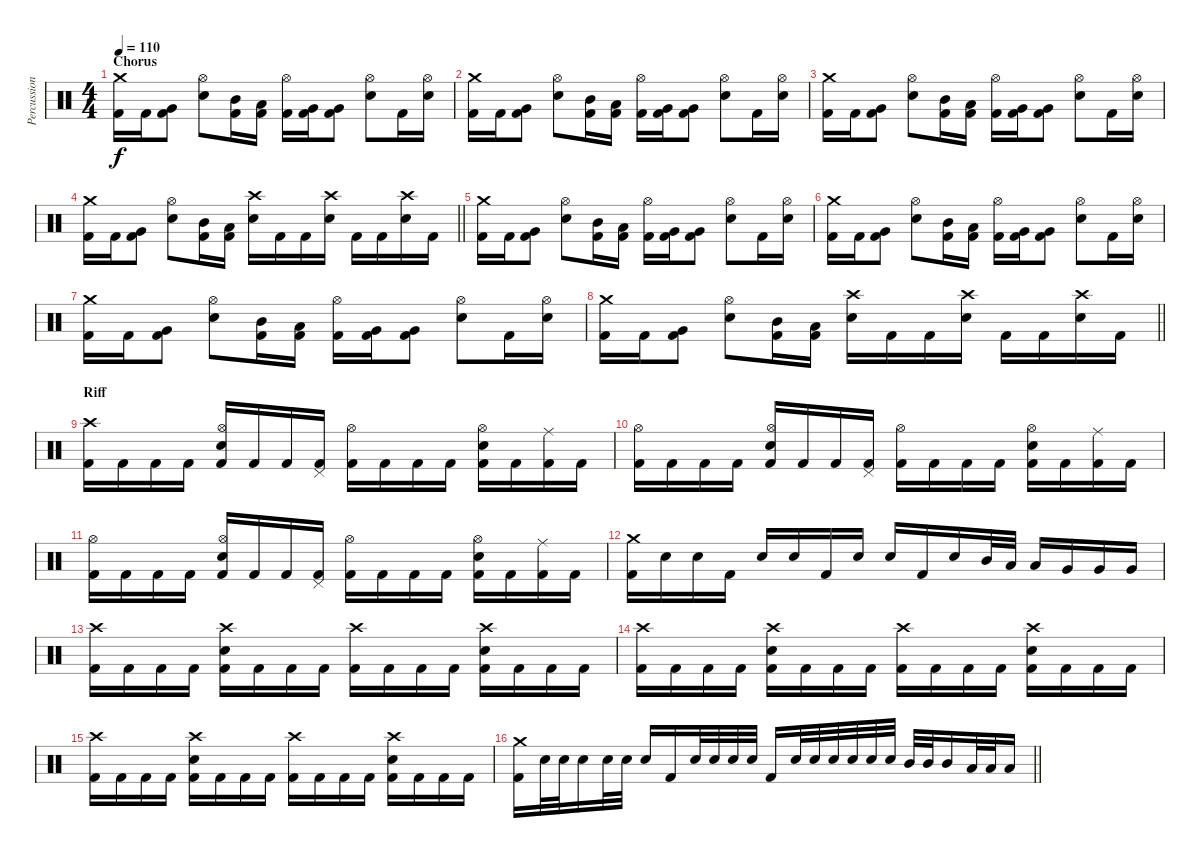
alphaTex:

\track ("Percussion" "Percussion") {instrument percussion}
\staff {score}
\articulation defaults
\ts (4 4)
\section ("" "Chorus")
\tempo 110
\clef neutral
\ks c
("Kick (hit) 2" "Crash medium (hit)").16{dy f} "Kick (hit) 2".16 ("Very Low Tom (hit)" "Kick (hit) 2").8 ("Hi-Hat (open)" "Snare (hit) 2").8 ("Mid Tom (hit)" "Kick (hit) 2").16 ("Low Tom (hit)" "Kick (hit) 2").16 ("Hi-Hat (open)" "Kick (hit) 2").16 ("Very Low Tom (hit)" "Kick (hit) 2").16 ("Very Low Tom (hit)" "Kick (hit) 2").8 ("Hi-Hat (open)" "Snare (hit) 2").8 "Kick (hit) 2".16 ("Hi-Hat (open)" "Snare (hit) 2").16 |
("Kick (hit) 2" "Crash medium (hit)").16 "Kick (hit) 2".16 ("Very Low Tom (hit)" "Kick (hit) 2").8 ("Hi-Hat (open)" "Snare (hit) 2").8 ("Mid Tom (hit)" "Kick (hit) 2").16 ("Low Tom (hit)" "Kick (hit) 2").16 ("Hi-Hat (open)" "Kick (hit) 2").16 ("Very Low Tom (hit)" "Kick (hit) 2").16 ("Very Low Tom (hit)" "Kick (hit) 2").8 ("Hi-Hat (open)" "Snare (hit) 2").8 "Kick (hit) 2".16 ("Hi-Hat (open)" "Snare (hit) 2").16 |
("Kick (hit) 2" "Crash medium (hit)").16 "Kick (hit) 2".16 ("Very Low Tom (hit)" "Kick (hit) 2").8 ("Hi-Hat (open)" "Snare (hit) 2").8 ("Mid Tom (hit)" "Kick (hit) 2").16 ("Low Tom (hit)" "Kick (hit) 2").16 ("Hi-Hat (open)" "Kick (hit) 2").16 ("Very Low Tom (hit)" "Kick (hit) 2").16 ("Very Low Tom (hit)" "Kick (hit) 2").8 ("Hi-Hat (open)" "Snare (hit) 2").8 "Kick (hit) 2".16 ("Hi-Hat (open)" "Snare (hit) 2").16 |
\barLineRight lightlight
("Kick (hit) 2" "Crash medium (hit)").16 "Kick (hit) 2".16 ("Very Low Tom (hit)" "Kick (hit) 2").8 ("Hi-Hat (open)" "Snare (hit) 2").8 ("Mid Tom (hit)" "Kick (hit) 2").16 ("Low Tom (hit)" "Kick (hit) 2").16 ("Snare (hit) 2" "Crash high (hit)").16 "Kick (hit) 2".16 "Kick (hit) 2".16 ("Snare (hit) 2" "Crash high (hit)").16 "Kick (hit) 2".16 "Kick (hit) 2".16 ("Snare (hit) 2" "Crash high (hit)").16 "Kick (hit) 2".16 |
("Kick (hit) 2" "Crash medium (hit)").16 "Kick (hit) 2".16 ("Very Low Tom (hit)" "Kick (hit) 2").8 ("Hi-Hat (open)" "Snare (hit) 2").8 ("Mid Tom (hit)" "Kick (hit) 2").16 ("Low Tom (hit)" "Kick (hit) 2").16 ("Hi-Hat (open)" "Kick (hit) 2").16 ("Very Low Tom (hit)" "Kick (hit) 2").16 ("Very Low Tom (hit)" "Kick (hit) 2").8 ("Hi-Hat (open)" "Snare (hit) 2").8 "Kick (hit) 2".16 ("Hi-Hat (open)" "Snare (hit) 2").16 |
("Kick (hit) 2" "Crash medium (hit)").16 "Kick (hit) 2".16 ("Very Low Tom (hit)" "Kick (hit) 2").8 ("Hi-Hat (open)" "Snare (hit) 2").8 ("Mid Tom (hit)" "Kick (hit) 2").16 ("Low Tom (hit)" "Kick (hit) 2").16 ("Hi-Hat (open)" "Kick (hit) 2").16 ("Very Low Tom (hit)" "Kick (hit) 2").16 ("Very Low Tom (hit)" "Kick (hit) 2").8 ("Hi-Hat (open)" "Snare (hit) 2").8 "Kick (hit) 2".16 ("Hi-Hat (open)" "Snare (hit) 2").16 |
("Kick (hit) 2" "Crash medium (hit)").16 "Kick (hit) 2".16 ("Very Low Tom (hit)" "Kick (hit) 2").8 ("Hi-Hat (open)" "Snare (hit) 2").8 ("Mid Tom (hit)" "Kick (hit) 2").16 ("Low Tom (hit)" "Kick (hit) 2").16 ("Hi-Hat (open)" "Kick (hit) 2").16 ("Very Low Tom (hit)" "Kick (hit) 2").16 ("Very Low Tom (hit)" "Kick (hit) 2").8 ("Hi-Hat (open)" "Snare (hit) 2").8 "Kick (hit) 2".16 ("Hi-Hat (open)" "Snare (hit) 2").16 |
\barLineRight lightlight
("Kick (hit) 2" "Crash medium (hit)").16 "Kick (hit) 2".16 ("Very Low Tom (hit)" "Kick (hit) 2").8 ("Hi-Hat (open)" "Snare (hit) 2").8 ("Mid Tom (hit)" "Kick (hit) 2").16 ("Low Tom (hit)" "Kick (hit) 2").16 ("Snare (hit) 2" "Crash high (hit)").16 "Kick (hit) 2".16 "Kick (hit) 2".16 ("Snare (hit) 2" "Crash high (hit)").16 "Kick (hit) 2".16 "Kick (hit) 2".16 ("Snare (hit) 2" "Crash high (hit)").16 "Kick (hit) 2".16 |
\section ("" "Riff")
("Kick (hit) 2" "Crash high (hit)").16 "Kick (hit) 2".16 "Kick (hit) 2".16 "Kick (hit) 2".16 ("Hi-Hat (open)" "Snare (hit) 2" "Kick (hit) 2").16 "Kick (hit) 2".16 "Kick (hit) 2".16 ("Pedal Hi-Hat (hit)" "Kick (hit) 2").16 ("Hi-Hat (open)" "Kick (hit) 2").16 "Kick (hit) 2".16 "Kick (hit) 2".16 "Kick (hit) 2".16 ("Hi-Hat (open)" "Snare (hit) 2" "Kick (hit) 2").16 "Kick (hit) 2".16 ("Ride (middle)" "Kick (hit) 2").16 "Kick (hit) 2".16 |
("Hi-Hat (open)" "Kick (hit) 2").16 "Kick (hit) 2".16 "Kick (hit) 2".16 "Kick (hit) 2".16 ("Hi-Hat (open)" "Snare (hit) 2" "Kick (hit) 2").16 "Kick (hit) 2".16 "Kick (hit) 2".16 ("Pedal Hi-Hat (hit)" "Kick (hit) 2").16 ("Hi-Hat (open)" "Kick (hit) 2").16 "Kick (hit) 2".16 "Kick (hit) 2".16 "Kick (hit) 2".16 ("Hi-Hat (open)" "Snare (hit) 2" "Kick (hit) 2").16 "Kick (hit) 2".16 ("Ride (middle)" "Kick (hit) 2").16 "Kick (hit) 2".16 |
("Hi-Hat (open)" "Kick (hit) 2").16 "Kick (hit) 2".16 "Kick (hit) 2".16 "Kick (hit) 2".16 ("Hi-Hat (open)" "Snare (hit) 2" "Kick (hit) 2").16 "Kick (hit) 2".16 "Kick (hit) 2".16 ("Pedal Hi-Hat (hit)" "Kick (hit) 2").16 ("Hi-Hat (open)" "Kick (hit) 2").16 "Kick (hit) 2".16 "Kick (hit) 2".16 "Kick (hit) 2".16 ("Hi-Hat (open)" "Snare (hit) 2" "Kick (hit) 2").16 "Kick (hit) 2".16 ("Ride (middle)" "Kick (hit) 2").16 "Kick (hit) 2".16 |
("Kick (hit) 2" "Crash medium (hit)").16 "Snare (hit) 2".16 "Snare (hit) 2".16 "Kick (hit) 2".16 "Snare (hit) 2".16 "Snare (hit) 2".16 "Kick (hit) 2".16 "Snare (hit) 2".16 "Snare (hit) 2".16 "Kick (hit) 2".16 "Snare (hit) 2".16 "Mid Tom (hit)".32 "Low Tom (hit)".32 "Low Tom (hit)".16 "Very Low Tom (hit)".16 "Very Low Tom (hit)".16 "Very Low Tom (hit)".16 |
("Kick (hit) 2" "Crash high (hit)").16 "Kick (hit) 2".16 "Kick (hit) 2".16 "Kick (hit) 2".16 ("Snare (hit) 2" "Kick (hit) 2" "Crash high (hit)").16 "Kick (hit) 2".16 "Kick (hit) 2".16 "Kick (hit) 2".16 ("Kick (hit) 2" "Crash high (hit)").16 "Kick (hit) 2".16 "Kick (hit) 2".16 "Kick (hit) 2".16 ("Snare (hit) 2" "Kick (hit) 2" "Crash high (hit)").16 "Kick (hit) 2".16 "Kick (hit) 2".16 "Kick (hit) 2".16 |
("Kick (hit) 2" "Crash high (hit)").16 "Kick (hit) 2".16 "Kick (hit) 2".16 "Kick (hit) 2".16 ("Snare (hit) 2" "Kick (hit) 2" "Crash high (hit)").16 "Kick (hit) 2".16 "Kick (hit) 2".16 "Kick (hit) 2".16 ("Kick (hit) 2" "Crash high (hit)").16 "Kick (hit) 2".16 "Kick (hit) 2".16 "Kick (hit) 2".16 ("Snare (hit) 2" "Kick (hit) 2" "Crash high (hit)").16 "Kick (hit) 2".16 "Kick (hit) 2".16 "Kick (hit) 2".16 |
("Kick (hit) 2" "Crash high (hit)").16 "Kick (hit) 2".16 "Kick (hit) 2".16 "Kick (hit) 2".16 ("Snare (hit) 2" "Kick (hit) 2" "Crash high (hit)").16 "Kick (hit) 2".16 "Kick (hit) 2".16 "Kick (hit) 2".16 ("Kick (hit) 2" "Crash high (hit)").16 "Kick (hit) 2".16 "Kick (hit) 2".16 "Kick (hit) 2".16 ("Snare (hit) 2" "Kick (hit) 2" "Crash high (hit)").16 "Kick (hit) 2".16 "Kick (hit) 2".16 "Kick (hit) 2".16 |
\barLineRight lightlight
("Kick (hit) 2" "Crash medium (hit)").16 "Snare (hit) 2".32 "Snare (hit) 2".32 "Snare (hit) 2".16 "Snare (hit) 2".32 "Snare (hit) 2".32 "Snare (hit) 2".16 "Kick (hit) 2".16 "Snare (hit) 2".32 "Snare (hit) 2".32 "Snare (hit) 2".32 "Snare (hit) 2".32 "Kick (hit) 2".16 "Snare (hit) 2".32 "Snare (hit) 2".32 "Snare (hit) 2".32 "Snare (hit) 2".32 "Snare (hit) 2".32 "Snare (hit) 2".32 "Mid Tom (hit)".32 "Mid Tom (hit)".32 "Mid Tom (hit)".16 "Low Tom (hit)".32 "Low Tom (hit)".32 "Low Tom (hit)".16
